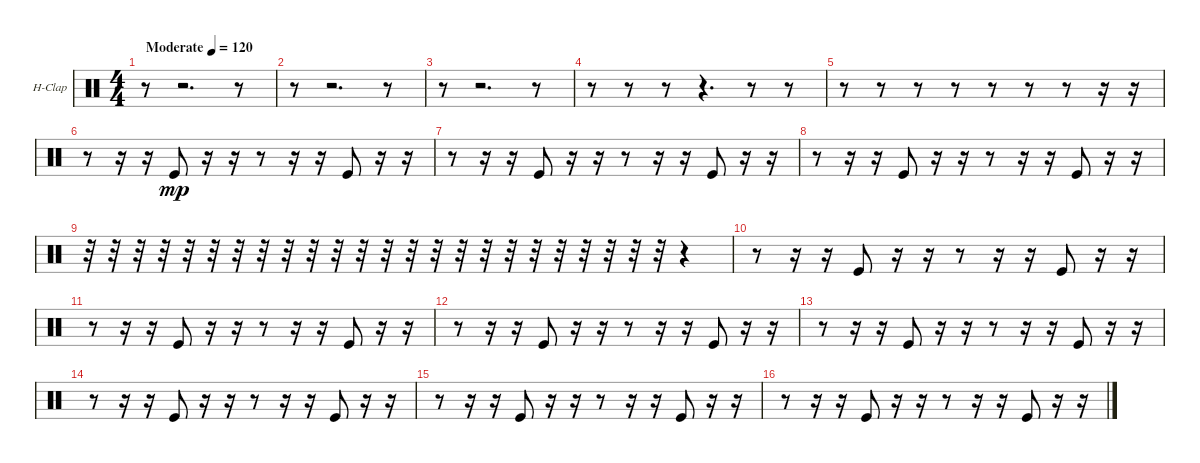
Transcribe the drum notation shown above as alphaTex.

\bracketExtendMode groupsimilarinstruments
\firstSystemTrackNameOrientation horizontal
\otherSystemsTrackNameOrientation horizontal
\track ("Hand Clap" "H-Clap") {instrument percussion}
\staff {score}
\articulation defaults
\ts (4 4)
\beaming (8 2 2 2 2)
\tempo (120 "Moderate")
\clef neutral
\ks c
r.8{dy mp} r.2{d} r.8 |
r.8 r.2{d} r.8 |
r.8 r.2{d} r.8 |
r.8 r.8 r.8 r.4{d} r.8 r.8 |
r.8 r.8 r.8 r.8 r.8 r.8 r.8 r.16 r.16 |
r.8 r.16 r.16 "Kick (hit)".8 r.16 r.16 r.8 r.16 r.16 "Kick (hit)".8 r.16 r.16 |
r.8 r.16 r.16 "Kick (hit)".8 r.16 r.16 r.8 r.16 r.16 "Kick (hit)".8 r.16 r.16 |
r.8 r.16 r.16 "Kick (hit)".8 r.16 r.16 r.8 r.16 r.16 "Kick (hit)".8 r.16 r.16 |
r.32 r.32 r.32 r.32 r.32 r.32 r.32 r.32 r.32 r.32 r.32 r.32 r.32 r.32 r.32 r.32 r.32 r.32 r.32 r.32 r.32 r.32 r.32 r.32 r.4 |
r.8 r.16 r.16 "Kick (hit)".8 r.16 r.16 r.8 r.16 r.16 "Kick (hit)".8 r.16 r.16 |
r.8 r.16 r.16 "Kick (hit)".8 r.16 r.16 r.8 r.16 r.16 "Kick (hit)".8 r.16 r.16 |
r.8 r.16 r.16 "Kick (hit)".8 r.16 r.16 r.8 r.16 r.16 "Kick (hit)".8 r.16 r.16 |
r.8 r.16 r.16 "Kick (hit)".8 r.16 r.16 r.8 r.16 r.16 "Kick (hit)".8 r.16 r.16 |
r.8 r.16 r.16 "Kick (hit)".8 r.16 r.16 r.8 r.16 r.16 "Kick (hit)".8 r.16 r.16 |
r.8 r.16 r.16 "Kick (hit)".8 r.16 r.16 r.8 r.16 r.16 "Kick (hit)".8 r.16 r.16 |
r.8 r.16 r.16 "Kick (hit)".8 r.16 r.16 r.8 r.16 r.16 "Kick (hit)".8 r.16 r.16
